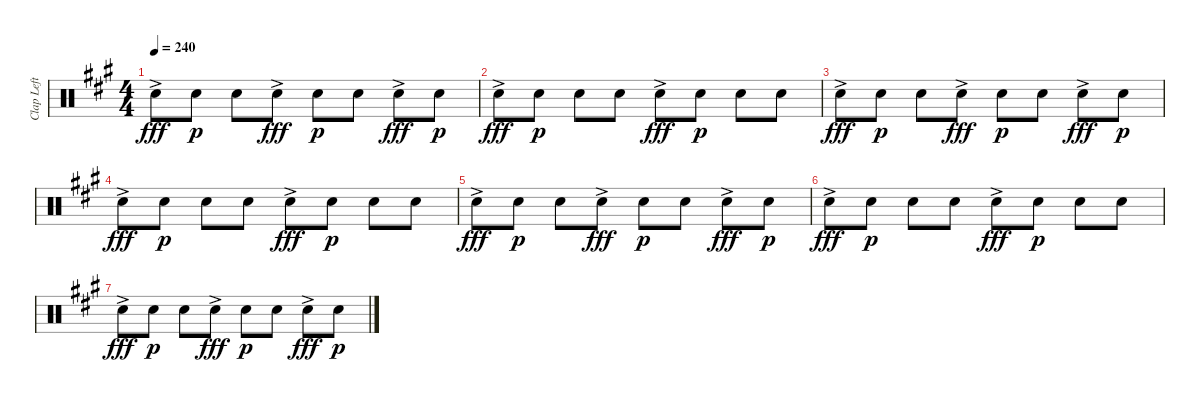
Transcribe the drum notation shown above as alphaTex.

\track ("Clap Left" "Clap Left") {instrument percussion}
\staff {score}
\articulation defaults
\ts (4 4)
\tempo 240
\clef neutral
\ks a "Hand Clap (hit)"{ac}.8{dy fff} "Hand Clap (hit)".8{dy p} "Hand Clap (hit)".8 "Hand Clap (hit)"{ac}.8{dy fff} "Hand Clap (hit)".8{dy p} "Hand Clap (hit)".8 "Hand Clap (hit)"{ac}.8{dy fff} "Hand Clap (hit)".8{dy p}
|
"Hand Clap (hit)"{ac}.8{dy fff} "Hand Clap (hit)".8{dy p} "Hand Clap (hit)".8 "Hand Clap (hit)".8 "Hand Clap (hit)"{ac}.8{dy fff} "Hand Clap (hit)".8{dy p} "Hand Clap (hit)".8 "Hand Clap (hit)".8 |
"Hand Clap (hit)"{ac}.8{dy fff} "Hand Clap (hit)".8{dy p} "Hand Clap (hit)".8 "Hand Clap (hit)"{ac}.8{dy fff} "Hand Clap (hit)".8{dy p} "Hand Clap (hit)".8 "Hand Clap (hit)"{ac}.8{dy fff} "Hand Clap (hit)".8{dy p} |
"Hand Clap (hit)"{ac}.8{dy fff} "Hand Clap (hit)".8{dy p} "Hand Clap (hit)".8 "Hand Clap (hit)".8 "Hand Clap (hit)"{ac}.8{dy fff} "Hand Clap (hit)".8{dy p} "Hand Clap (hit)".8 "Hand Clap (hit)".8 |
"Hand Clap (hit)"{ac}.8{dy fff} "Hand Clap (hit)".8{dy p} "Hand Clap (hit)".8 "Hand Clap (hit)"{ac}.8{dy fff} "Hand Clap (hit)".8{dy p} "Hand Clap (hit)".8 "Hand Clap (hit)"{ac}.8{dy fff} "Hand Clap (hit)".8{dy p} |
"Hand Clap (hit)"{ac}.8{dy fff} "Hand Clap (hit)".8{dy p} "Hand Clap (hit)".8 "Hand Clap (hit)".8 "Hand Clap (hit)"{ac}.8{dy fff} "Hand Clap (hit)".8{dy p} "Hand Clap (hit)".8 "Hand Clap (hit)".8 |
"Hand Clap (hit)"{ac}.8{dy fff} "Hand Clap (hit)".8{dy p} "Hand Clap (hit)".8 "Hand Clap (hit)"{ac}.8{dy fff} "Hand Clap (hit)".8{dy p} "Hand Clap (hit)".8 "Hand Clap (hit)"{ac}.8{dy fff} "Hand Clap (hit)".8{dy p}
